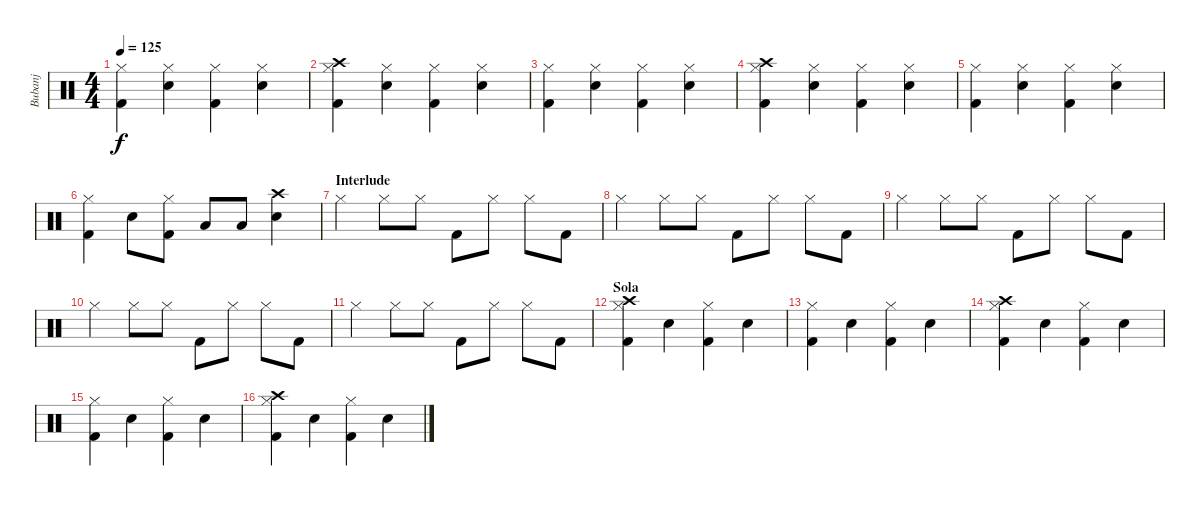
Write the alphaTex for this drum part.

\track ("Bubanj" "Bubanj") {instrument percussion}
\staff {score}
\articulation defaults
\ts (4 4)
\tempo 125
\clef neutral
\ks c
("Hi-Hat (closed)" "Kick (hit) 2").4{dy f} ("Electric Snare (hit)" "Hi-Hat (closed)").4 ("Hi-Hat (closed)" "Kick (hit) 2").4 ("Electric Snare (hit)" "Hi-Hat (closed)").4 |
("Crash high (hit)" "Hi-Hat (closed)" "Kick (hit) 2").4 ("Electric Snare (hit)" "Hi-Hat (closed)").4 ("Hi-Hat (closed)" "Kick (hit) 2").4 ("Electric Snare (hit)" "Hi-Hat (closed)").4 |
("Hi-Hat (closed)" "Kick (hit) 2").4 ("Electric Snare (hit)" "Hi-Hat (closed)").4 ("Hi-Hat (closed)" "Kick (hit) 2").4 ("Electric Snare (hit)" "Hi-Hat (closed)").4 |
("Crash high (hit)" "Hi-Hat (closed)" "Kick (hit) 2").4 ("Electric Snare (hit)" "Hi-Hat (closed)").4 ("Hi-Hat (closed)" "Kick (hit) 2").4 ("Electric Snare (hit)" "Hi-Hat (closed)").4 |
("Hi-Hat (closed)" "Kick (hit) 2").4 ("Electric Snare (hit)" "Hi-Hat (closed)").4 ("Hi-Hat (closed)" "Kick (hit) 2").4 ("Electric Snare (hit)" "Hi-Hat (closed)").4 |
("Hi-Hat (closed)" "Kick (hit) 2").4 "Electric Snare (hit)".8 ("Hi-Hat (closed)" "Kick (hit) 2").8 "Low Tom (hit)".8 "Low Floor Tom (hit)".8 ("Crash high (hit)" "Electric Snare (hit)").4 |
\section ("" "Interlude")
"Hi-Hat (closed)".4 "Hi-Hat (closed)".8 "Hi-Hat (closed)".8 "Kick (hit) 2".8 "Hi-Hat (closed)".8 "Hi-Hat (closed)".8 "Kick (hit) 2".8 |
"Hi-Hat (closed)".4 "Hi-Hat (closed)".8 "Hi-Hat (closed)".8 "Kick (hit) 2".8 "Hi-Hat (closed)".8 "Hi-Hat (closed)".8 "Kick (hit) 2".8 |
"Hi-Hat (closed)".4 "Hi-Hat (closed)".8 "Hi-Hat (closed)".8 "Kick (hit) 2".8 "Hi-Hat (closed)".8 "Hi-Hat (closed)".8 "Kick (hit) 2".8 |
"Hi-Hat (closed)".4 "Hi-Hat (closed)".8 "Hi-Hat (closed)".8 "Kick (hit) 2".8 "Hi-Hat (closed)".8 "Hi-Hat (closed)".8 "Kick (hit) 2".8 |
"Hi-Hat (closed)".4 "Hi-Hat (closed)".8 "Hi-Hat (closed)".8 "Kick (hit) 2".8 "Hi-Hat (closed)".8 "Hi-Hat (closed)".8 "Kick (hit) 2".8 |
\section ("" "Sola")
("Crash high (hit)" "Hi-Hat (closed)" "Kick (hit) 2").4 "Electric Snare (hit)".4 ("Hi-Hat (closed)" "Kick (hit) 2").4 "Electric Snare (hit)".4 |
("Hi-Hat (closed)" "Kick (hit) 2").4 "Electric Snare (hit)".4 ("Hi-Hat (closed)" "Kick (hit) 2").4 "Electric Snare (hit)".4 |
("Crash high (hit)" "Hi-Hat (closed)" "Kick (hit) 2").4 "Electric Snare (hit)".4 ("Hi-Hat (closed)" "Kick (hit) 2").4 "Electric Snare (hit)".4 |
("Hi-Hat (closed)" "Kick (hit) 2").4 "Electric Snare (hit)".4 ("Hi-Hat (closed)" "Kick (hit) 2").4 "Electric Snare (hit)".4 |
("Crash high (hit)" "Hi-Hat (closed)" "Kick (hit) 2").4 "Electric Snare (hit)".4 ("Hi-Hat (closed)" "Kick (hit) 2").4 "Electric Snare (hit)".4
